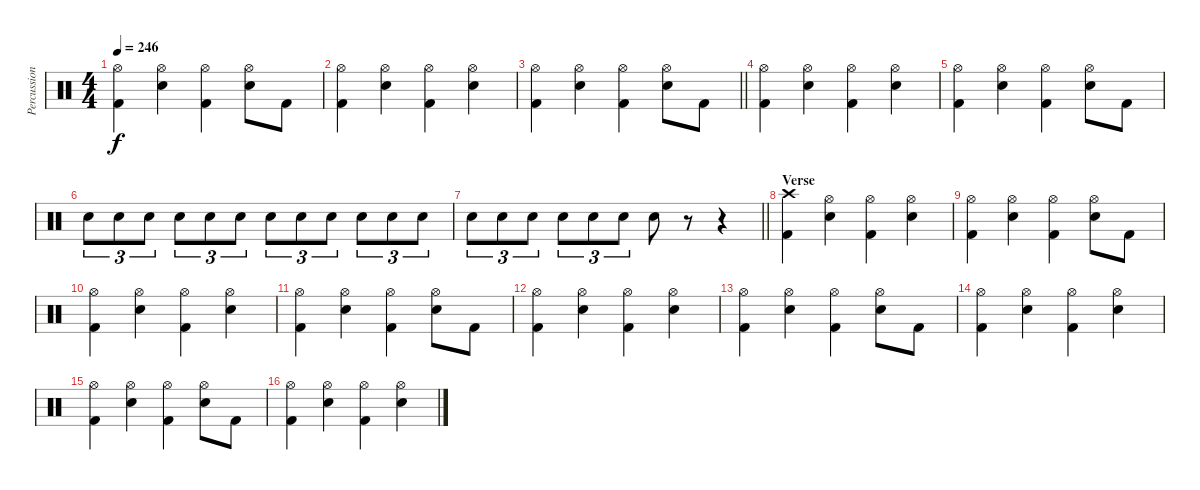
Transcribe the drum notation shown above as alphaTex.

\track ("Percussions" "Percussion") {instrument percussion}
\staff {score}
\articulation defaults
\ts (4 4)
\tempo 246
\clef neutral
\ks c
("Hi-Hat (open)" "Kick (hit) 2").4{dy f} ("Hi-Hat (open)" "Electric Snare (hit)").4 ("Hi-Hat (open)" "Kick (hit) 2").4 ("Hi-Hat (open)" "Electric Snare (hit)").8 "Kick (hit) 2".8 |
("Hi-Hat (open)" "Kick (hit) 2").4 ("Hi-Hat (open)" "Electric Snare (hit)").4 ("Hi-Hat (open)" "Kick (hit) 2").4 ("Hi-Hat (open)" "Electric Snare (hit)").4 |
\barLineRight lightlight
("Hi-Hat (open)" "Kick (hit) 2").4 ("Hi-Hat (open)" "Electric Snare (hit)").4 ("Hi-Hat (open)" "Kick (hit) 2").4 ("Hi-Hat (open)" "Electric Snare (hit)").8 "Kick (hit) 2".8 |
\section ("" "")
("Hi-Hat (open)" "Kick (hit) 2").4 ("Hi-Hat (open)" "Electric Snare (hit)").4 ("Hi-Hat (open)" "Kick (hit) 2").4 ("Hi-Hat (open)" "Electric Snare (hit)").4 |
("Hi-Hat (open)" "Kick (hit) 2").4 ("Hi-Hat (open)" "Electric Snare (hit)").4 ("Hi-Hat (open)" "Kick (hit) 2").4 ("Hi-Hat (open)" "Electric Snare (hit)").8 "Kick (hit) 2".8 |
"Electric Snare (hit)".8{tu (3 2)} "Electric Snare (hit)".8{tu (3 2)} "Electric Snare (hit)".8{tu (3 2)} "Electric Snare (hit)".8{tu (3 2)} "Electric Snare (hit)".8{tu (3 2)} "Electric Snare (hit)".8{tu (3 2)} "Electric Snare (hit)".8{tu (3 2)} "Electric Snare (hit)".8{tu (3 2)} "Electric Snare (hit)".8{tu (3 2)} "Electric Snare (hit)".8{tu (3 2)} "Electric Snare (hit)".8{tu (3 2)} "Electric Snare (hit)".8{tu (3 2)} |
\barLineRight lightlight "Electric Snare (hit)".8{tu (3 2)} "Electric Snare (hit)".8{tu (3 2)} "Electric Snare (hit)".8{tu (3 2)} "Electric Snare (hit)".8{tu (3 2)} "Electric Snare (hit)".8{tu (3 2)} "Electric Snare (hit)".8{tu (3 2)} "Electric Snare (hit)".8
r.8 r.4 |
\section ("" "Verse")
("Crash high (hit)" "Kick (hit) 2").4 ("Hi-Hat (open)" "Electric Snare (hit)").4 ("Hi-Hat (open)" "Kick (hit) 2").4 ("Hi-Hat (open)" "Electric Snare (hit)").4 |
("Hi-Hat (open)" "Kick (hit) 2").4 ("Hi-Hat (open)" "Electric Snare (hit)").4 ("Hi-Hat (open)" "Kick (hit) 2").4 ("Hi-Hat (open)" "Electric Snare (hit)").8 "Kick (hit) 2".8 |
("Hi-Hat (open)" "Kick (hit) 2").4 ("Hi-Hat (open)" "Electric Snare (hit)").4 ("Hi-Hat (open)" "Kick (hit) 2").4 ("Hi-Hat (open)" "Electric Snare (hit)").4 |
("Hi-Hat (open)" "Kick (hit) 2").4 ("Hi-Hat (open)" "Electric Snare (hit)").4 ("Hi-Hat (open)" "Kick (hit) 2").4 ("Hi-Hat (open)" "Electric Snare (hit)").8 "Kick (hit) 2".8 |
("Hi-Hat (open)" "Kick (hit) 2").4 ("Hi-Hat (open)" "Electric Snare (hit)").4 ("Hi-Hat (open)" "Kick (hit) 2").4 ("Hi-Hat (open)" "Electric Snare (hit)").4 |
("Hi-Hat (open)" "Kick (hit) 2").4 ("Hi-Hat (open)" "Electric Snare (hit)").4 ("Hi-Hat (open)" "Kick (hit) 2").4 ("Hi-Hat (open)" "Electric Snare (hit)").8 "Kick (hit) 2".8 |
("Hi-Hat (open)" "Kick (hit) 2").4 ("Hi-Hat (open)" "Electric Snare (hit)").4 ("Hi-Hat (open)" "Kick (hit) 2").4 ("Hi-Hat (open)" "Electric Snare (hit)").4 |
("Hi-Hat (open)" "Kick (hit) 2").4 ("Hi-Hat (open)" "Electric Snare (hit)").4 ("Hi-Hat (open)" "Kick (hit) 2").4 ("Hi-Hat (open)" "Electric Snare (hit)").8 "Kick (hit) 2".8 |
("Hi-Hat (open)" "Kick (hit) 2").4 ("Hi-Hat (open)" "Electric Snare (hit)").4 ("Hi-Hat (open)" "Kick (hit) 2").4 ("Hi-Hat (open)" "Electric Snare (hit)").4
